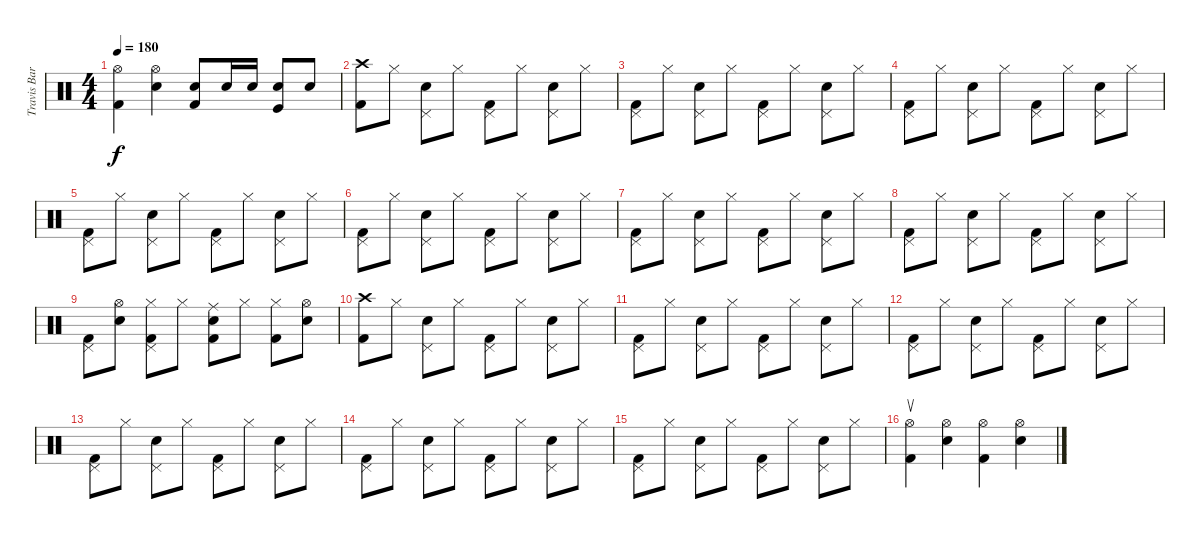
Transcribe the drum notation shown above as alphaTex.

\track ("Travis Barker" "Travis Bar") {instrument percussion}
\staff {score}
\articulation defaults
\ts (4 4)
\tempo 180
\clef neutral
\ks c
("Hi-Hat (open)" "Kick (hit) 2").4{dy f} ("Hi-Hat (open)" "Electric Snare (hit)").4 ("Electric Snare (hit)" "Kick (hit) 2").8 "Electric Snare (hit)".16 "Electric Snare (hit)".16 ("Electric Snare (hit)" "Kick (hit)").8 "Electric Snare (hit)".8 |
("Crash high (hit)" "Kick (hit) 2").8 "Hi-Hat (closed)".8 ("Pedal Hi-Hat (hit)" "Electric Snare (hit)").8 "Hi-Hat (closed)".8 ("Pedal Hi-Hat (hit)" "Kick (hit) 2").8 "Hi-Hat (closed)".8 ("Pedal Hi-Hat (hit)" "Electric Snare (hit)").8 "Hi-Hat (closed)".8 |
("Pedal Hi-Hat (hit)" "Kick (hit) 2").8 "Hi-Hat (closed)".8 ("Pedal Hi-Hat (hit)" "Electric Snare (hit)").8 "Hi-Hat (closed)".8 ("Pedal Hi-Hat (hit)" "Kick (hit) 2").8 "Hi-Hat (closed)".8 ("Pedal Hi-Hat (hit)" "Electric Snare (hit)").8 "Hi-Hat (closed)".8 |
("Pedal Hi-Hat (hit)" "Kick (hit) 2").8 "Hi-Hat (closed)".8 ("Pedal Hi-Hat (hit)" "Electric Snare (hit)").8 "Hi-Hat (closed)".8 ("Pedal Hi-Hat (hit)" "Kick (hit) 2").8 "Hi-Hat (closed)".8 ("Pedal Hi-Hat (hit)" "Electric Snare (hit)").8 "Hi-Hat (closed)".8 |
("Pedal Hi-Hat (hit)" "Kick (hit) 2").8 "Hi-Hat (closed)".8 ("Pedal Hi-Hat (hit)" "Electric Snare (hit)").8 "Hi-Hat (closed)".8 ("Pedal Hi-Hat (hit)" "Kick (hit) 2").8 "Hi-Hat (closed)".8 ("Pedal Hi-Hat (hit)" "Electric Snare (hit)").8 "Hi-Hat (closed)".8 |
("Pedal Hi-Hat (hit)" "Kick (hit) 2").8 "Hi-Hat (closed)".8 ("Pedal Hi-Hat (hit)" "Electric Snare (hit)").8 "Hi-Hat (closed)".8 ("Pedal Hi-Hat (hit)" "Kick (hit) 2").8 "Hi-Hat (closed)".8 ("Pedal Hi-Hat (hit)" "Electric Snare (hit)").8 "Hi-Hat (closed)".8 |
("Pedal Hi-Hat (hit)" "Kick (hit) 2").8 "Hi-Hat (closed)".8 ("Pedal Hi-Hat (hit)" "Electric Snare (hit)").8 "Hi-Hat (closed)".8 ("Pedal Hi-Hat (hit)" "Kick (hit) 2").8 "Hi-Hat (closed)".8 ("Pedal Hi-Hat (hit)" "Electric Snare (hit)").8 "Hi-Hat (closed)".8 |
("Pedal Hi-Hat (hit)" "Kick (hit) 2").8 "Hi-Hat (closed)".8 ("Pedal Hi-Hat (hit)" "Electric Snare (hit)").8 "Hi-Hat (closed)".8 ("Pedal Hi-Hat (hit)" "Kick (hit) 2").8 "Hi-Hat (closed)".8 ("Pedal Hi-Hat (hit)" "Electric Snare (hit)").8 "Hi-Hat (closed)".8 |
("Pedal Hi-Hat (hit)" "Kick (hit) 2").8 ("Hi-Hat (open)" "Electric Snare (hit)").8 ("Hi-Hat (closed)" "Kick (hit) 2" "Pedal Hi-Hat (hit)").8 "Hi-Hat (closed)".8 ("Ride (middle)" "Electric Snare (hit)" "Kick (hit) 2").8 "Hi-Hat (closed)".8 ("Hi-Hat (closed)" "Kick (hit) 2").8 ("Hi-Hat (open)" "Electric Snare (hit)").8 |
("Crash high (hit)" "Kick (hit) 2").8 "Hi-Hat (closed)".8 ("Pedal Hi-Hat (hit)" "Electric Snare (hit)").8 "Hi-Hat (closed)".8 ("Pedal Hi-Hat (hit)" "Kick (hit) 2").8 "Hi-Hat (closed)".8 ("Pedal Hi-Hat (hit)" "Electric Snare (hit)").8 "Hi-Hat (closed)".8 |
("Pedal Hi-Hat (hit)" "Kick (hit) 2").8 "Hi-Hat (closed)".8 ("Pedal Hi-Hat (hit)" "Electric Snare (hit)").8 "Hi-Hat (closed)".8 ("Pedal Hi-Hat (hit)" "Kick (hit) 2").8 "Hi-Hat (closed)".8 ("Pedal Hi-Hat (hit)" "Electric Snare (hit)").8 "Hi-Hat (closed)".8 |
("Pedal Hi-Hat (hit)" "Kick (hit) 2").8 "Hi-Hat (closed)".8 ("Pedal Hi-Hat (hit)" "Electric Snare (hit)").8 "Hi-Hat (closed)".8 ("Pedal Hi-Hat (hit)" "Kick (hit) 2").8 "Hi-Hat (closed)".8 ("Pedal Hi-Hat (hit)" "Electric Snare (hit)").8 "Hi-Hat (closed)".8 |
("Pedal Hi-Hat (hit)" "Kick (hit) 2").8 "Hi-Hat (closed)".8 ("Pedal Hi-Hat (hit)" "Electric Snare (hit)").8 "Hi-Hat (closed)".8 ("Pedal Hi-Hat (hit)" "Kick (hit) 2").8 "Hi-Hat (closed)".8 ("Pedal Hi-Hat (hit)" "Electric Snare (hit)").8 "Hi-Hat (closed)".8 |
("Pedal Hi-Hat (hit)" "Kick (hit) 2").8 "Hi-Hat (closed)".8 ("Pedal Hi-Hat (hit)" "Electric Snare (hit)").8 "Hi-Hat (closed)".8 ("Pedal Hi-Hat (hit)" "Kick (hit) 2").8 "Hi-Hat (closed)".8 ("Pedal Hi-Hat (hit)" "Electric Snare (hit)").8 "Hi-Hat (closed)".8 |
("Pedal Hi-Hat (hit)" "Kick (hit) 2").8 "Hi-Hat (closed)".8 ("Pedal Hi-Hat (hit)" "Electric Snare (hit)").8 "Hi-Hat (closed)".8 ("Pedal Hi-Hat (hit)" "Kick (hit) 2").8 "Hi-Hat (closed)".8 ("Pedal Hi-Hat (hit)" "Electric Snare (hit)").8 "Hi-Hat (closed)".8 |
("Hi-Hat (open)" "Kick (hit) 2").4{su} ("Hi-Hat (open)" "Electric Snare (hit)").4 ("Hi-Hat (open)" "Kick (hit) 2").4 ("Hi-Hat (open)" "Electric Snare (hit)").4
